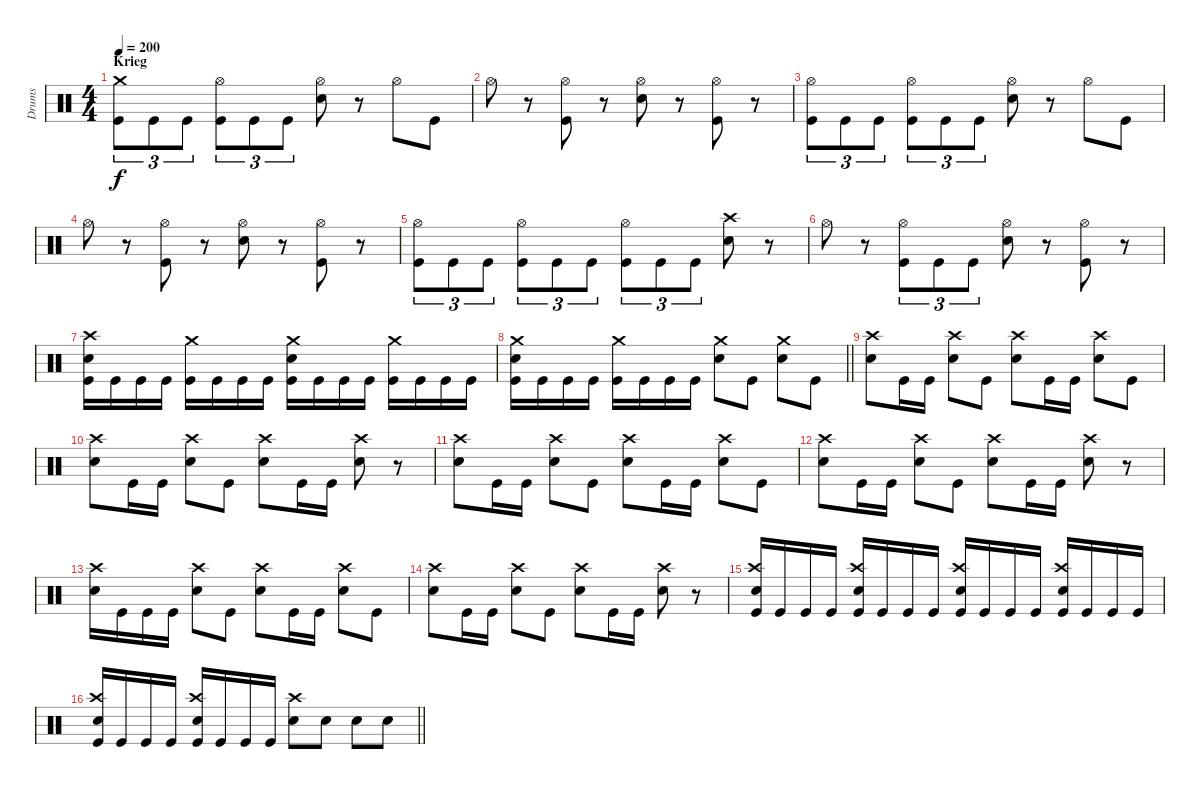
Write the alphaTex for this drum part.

\track ("Drums" "Drums") {instrument percussion}
\staff {score}
\articulation defaults
\ts (4 4)
\section ("" "Krieg")
\tempo 200
\clef neutral
\ks c
("Crash medium (hit)" "Kick (hit)").8{tu (3 2) dy f} "Kick (hit)".8{tu (3 2)} "Kick (hit)".8{tu (3 2)} ("Hi-Hat (open)" "Kick (hit)").8{tu (3 2)} "Kick (hit)".8{tu (3 2)} "Kick (hit)".8{tu (3 2)} ("Hi-Hat (open)" "Electric Snare (hit)").8 r.8 "Hi-Hat (open)".8 "Kick (hit)".8 |
"Hi-Hat (open)".8 r.8 ("Hi-Hat (open)" "Kick (hit)").8 r.8 ("Hi-Hat (open)" "Electric Snare (hit)").8 r.8 ("Hi-Hat (open)" "Kick (hit)").8 r.8 |
("Hi-Hat (open)" "Kick (hit)").8{tu (3 2)} "Kick (hit)".8{tu (3 2)} "Kick (hit)".8{tu (3 2)} ("Hi-Hat (open)" "Kick (hit)").8{tu (3 2)} "Kick (hit)".8{tu (3 2)} "Kick (hit)".8{tu (3 2)} ("Hi-Hat (open)" "Electric Snare (hit)").8 r.8 "Hi-Hat (open)".8 "Kick (hit)".8 |
"Hi-Hat (open)".8 r.8 ("Hi-Hat (open)" "Kick (hit)").8 r.8 ("Hi-Hat (open)" "Electric Snare (hit)").8 r.8 ("Hi-Hat (open)" "Kick (hit)").8 r.8 |
("Hi-Hat (open)" "Kick (hit)").8{tu (3 2)} "Kick (hit)".8{tu (3 2)} "Kick (hit)".8{tu (3 2)} ("Hi-Hat (open)" "Kick (hit)").8{tu (3 2)} "Kick (hit)".8{tu (3 2)} "Kick (hit)".8{tu (3 2)} ("Hi-Hat (open)" "Kick (hit)").8{tu (3 2)} "Kick (hit)".8{tu (3 2)} "Kick (hit)".8{tu (3 2)} ("Crash high (hit)" "Electric Snare (hit)").8 r.8 |
"Hi-Hat (open)".8 r.8 ("Hi-Hat (open)" "Kick (hit)").8{tu (3 2)} "Kick (hit)".8{tu (3 2)} "Kick (hit)".8{tu (3 2)} ("Hi-Hat (open)" "Electric Snare (hit)").8 r.8 ("Hi-Hat (open)" "Kick (hit)").8 r.8 |
("Crash high (hit)" "Electric Snare (hit)" "Kick (hit)").16 "Kick (hit)".16 "Kick (hit)".16 "Kick (hit)".16 ("Crash medium (hit)" "Kick (hit)").16 "Kick (hit)".16 "Kick (hit)".16 "Kick (hit)".16 ("Crash medium (hit)" "Electric Snare (hit)" "Kick (hit)").16 "Kick (hit)".16 "Kick (hit)".16 "Kick (hit)".16 ("Crash medium (hit)" "Kick (hit)").16 "Kick (hit)".16 "Kick (hit)".16 "Kick (hit)".16 |
\barLineRight lightlight
("Crash medium (hit)" "Electric Snare (hit)" "Kick (hit)").16 "Kick (hit)".16 "Kick (hit)".16 "Kick (hit)".16 ("Crash medium (hit)" "Kick (hit)").16 "Kick (hit)".16 "Kick (hit)".16 "Kick (hit)".16 ("Crash medium (hit)" "Electric Snare (hit)").8 "Kick (hit)".8 ("Crash medium (hit)" "Electric Snare (hit)").8 "Kick (hit)".8 |
("Crash high (hit)" "Snare (hit) 2").8 "Kick (hit)".16 "Kick (hit)".16 ("Crash high (hit)" "Snare (hit) 2").8 "Kick (hit)".8 ("Crash high (hit)" "Snare (hit) 2").8 "Kick (hit)".16 "Kick (hit)".16 ("Crash high (hit)" "Snare (hit) 2").8 "Kick (hit)".8 |
("Crash high (hit)" "Snare (hit) 2").8 "Kick (hit)".16 "Kick (hit)".16 ("Crash high (hit)" "Snare (hit) 2").8 "Kick (hit)".8 ("Crash high (hit)" "Snare (hit) 2").8 "Kick (hit)".16 "Kick (hit)".16 ("Crash high (hit)" "Snare (hit) 2").8 r.8 |
("Crash high (hit)" "Snare (hit) 2").8 "Kick (hit)".16 "Kick (hit)".16 ("Crash high (hit)" "Snare (hit) 2").8 "Kick (hit)".8 ("Crash high (hit)" "Snare (hit) 2").8 "Kick (hit)".16 "Kick (hit)".16 ("Crash high (hit)" "Snare (hit) 2").8 "Kick (hit)".8 |
("Crash high (hit)" "Snare (hit) 2").8 "Kick (hit)".16 "Kick (hit)".16 ("Crash high (hit)" "Snare (hit) 2").8 "Kick (hit)".8 ("Crash high (hit)" "Snare (hit) 2").8 "Kick (hit)".16 "Kick (hit)".16 ("Crash high (hit)" "Snare (hit) 2").8 r.8 |
("Crash high (hit)" "Snare (hit) 2").16 "Kick (hit)".16 "Kick (hit)".16 "Kick (hit)".16 ("Crash high (hit)" "Snare (hit) 2").8 "Kick (hit)".8 ("Crash high (hit)" "Snare (hit) 2").8 "Kick (hit)".16 "Kick (hit)".16 ("Crash high (hit)" "Snare (hit) 2").8 "Kick (hit)".8 |
("Crash high (hit)" "Snare (hit) 2").8 "Kick (hit)".16 "Kick (hit)".16 ("Crash high (hit)" "Snare (hit) 2").8 "Kick (hit)".8 ("Crash high (hit)" "Snare (hit) 2").8 "Kick (hit)".16 "Kick (hit)".16 ("Crash high (hit)" "Snare (hit) 2").8 r.8 |
("Crash high (hit)" "Snare (hit) 2" "Kick (hit)").16 "Kick (hit)".16 "Kick (hit)".16 "Kick (hit)".16 ("Crash high (hit)" "Snare (hit) 2" "Kick (hit)").16 "Kick (hit)".16 "Kick (hit)".16 "Kick (hit)".16 ("Crash high (hit)" "Snare (hit) 2" "Kick (hit)").16 "Kick (hit)".16 "Kick (hit)".16 "Kick (hit)".16 ("Crash high (hit)" "Snare (hit) 2" "Kick (hit)").16 "Kick (hit)".16 "Kick (hit)".16 "Kick (hit)".16 |
\barLineRight lightlight
("Crash high (hit)" "Snare (hit) 2" "Kick (hit)").16 "Kick (hit)".16 "Kick (hit)".16 "Kick (hit)".16 ("Crash high (hit)" "Snare (hit) 2" "Kick (hit)").16 "Kick (hit)".16 "Kick (hit)".16 "Kick (hit)".16 ("Crash high (hit)" "Snare (hit) 2").8 "Snare (hit) 2".8 "Snare (hit) 2".8 "Snare (hit) 2".8
